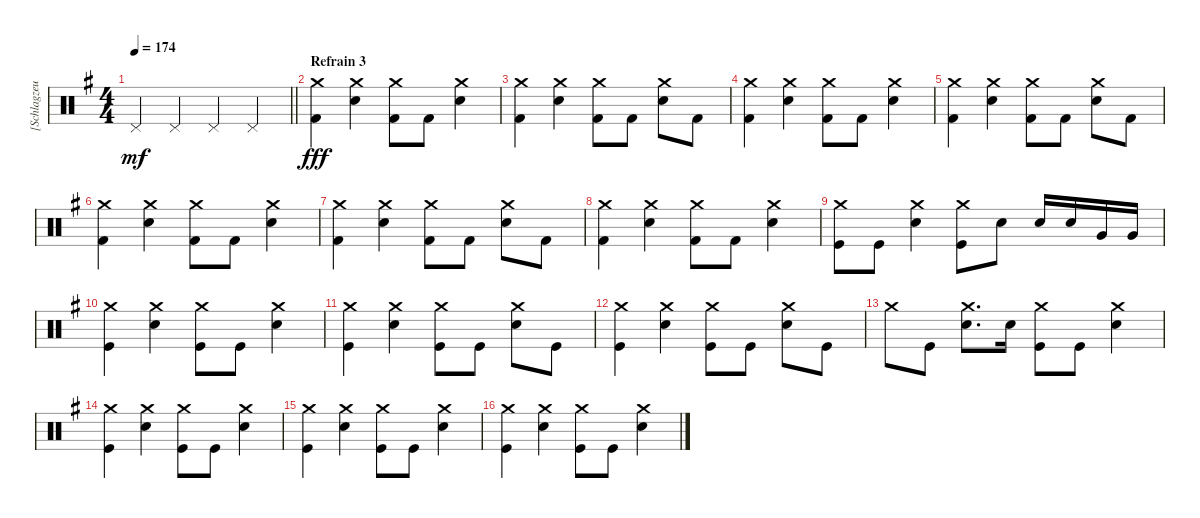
\track ("[Schlagzeug]" "[Schlagzeu") {instrument percussion}
\staff {score}
\articulation defaults
\ts (4 4)
\tempo 174
\clef neutral
\barLineRight lightlight
\ks g "Pedal Hi-Hat (hit)".4{dy mf} "Pedal Hi-Hat (hit)".4 "Pedal Hi-Hat (hit)".4 "Pedal Hi-Hat (hit)".4
|
\section ("" "Refrain 3")
("Crash medium (hit)" "Kick (hit) 2").4{dy fff} ("Crash medium (hit)" "Electric Snare (hit)").4 ("Crash medium (hit)" "Kick (hit) 2").8 "Kick (hit) 2".8 ("Crash medium (hit)" "Electric Snare (hit)").4 |
("Crash medium (hit)" "Kick (hit) 2").4 ("Crash medium (hit)" "Electric Snare (hit)").4 ("Crash medium (hit)" "Kick (hit) 2").8 "Kick (hit) 2".8 ("Crash medium (hit)" "Electric Snare (hit)").8 "Kick (hit) 2".8 |
("Crash medium (hit)" "Kick (hit) 2").4 ("Crash medium (hit)" "Electric Snare (hit)").4 ("Crash medium (hit)" "Kick (hit) 2").8 "Kick (hit) 2".8 ("Crash medium (hit)" "Electric Snare (hit)").4 |
("Crash medium (hit)" "Kick (hit) 2").4 ("Crash medium (hit)" "Electric Snare (hit)").4 ("Crash medium (hit)" "Kick (hit) 2").8 "Kick (hit) 2".8 ("Crash medium (hit)" "Electric Snare (hit)").8 "Kick (hit) 2".8 |
("Crash medium (hit)" "Kick (hit) 2").4 ("Crash medium (hit)" "Electric Snare (hit)").4 ("Crash medium (hit)" "Kick (hit) 2").8 "Kick (hit) 2".8 ("Crash medium (hit)" "Electric Snare (hit)").4 |
("Crash medium (hit)" "Kick (hit) 2").4 ("Crash medium (hit)" "Electric Snare (hit)").4 ("Crash medium (hit)" "Kick (hit) 2").8 "Kick (hit) 2".8 ("Crash medium (hit)" "Electric Snare (hit)").8 "Kick (hit) 2".8 |
("Crash medium (hit)" "Kick (hit) 2").4 ("Crash medium (hit)" "Electric Snare (hit)").4 ("Crash medium (hit)" "Kick (hit) 2").8 "Kick (hit) 2".8 ("Crash medium (hit)" "Electric Snare (hit)").4 |
("Crash medium (hit)" "Kick (hit)").8 "Kick (hit)".8 ("Crash medium (hit)" "Electric Snare (hit)").4 ("Crash medium (hit)" "Kick (hit)").8 "Electric Snare (hit)".8 "Electric Snare (hit)".16 "Electric Snare (hit)".16 "Very Low Tom (hit)".16 "Very Low Tom (hit)".16 |
("Crash medium (hit)" "Kick (hit)").4 ("Crash medium (hit)" "Electric Snare (hit)").4 ("Crash medium (hit)" "Kick (hit)").8 "Kick (hit)".8 ("Crash medium (hit)" "Electric Snare (hit)").4 |
("Crash medium (hit)" "Kick (hit)").4 ("Crash medium (hit)" "Electric Snare (hit)").4 ("Crash medium (hit)" "Kick (hit)").8 "Kick (hit)".8 ("Crash medium (hit)" "Electric Snare (hit)").8 "Kick (hit)".8 |
("Crash medium (hit)" "Kick (hit)").4 ("Crash medium (hit)" "Electric Snare (hit)").4 ("Crash medium (hit)" "Kick (hit)").8 "Kick (hit)".8 ("Crash medium (hit)" "Electric Snare (hit)").8 "Kick (hit)".8 |
"Crash medium (hit)".8 "Kick (hit)".8 ("Crash medium (hit)" "Electric Snare (hit)").8{d} "Electric Snare (hit)".16 ("Crash medium (hit)" "Kick (hit)").8 "Kick (hit)".8 ("Crash medium (hit)" "Electric Snare (hit)").4 |
("Crash medium (hit)" "Kick (hit)").4 ("Crash medium (hit)" "Electric Snare (hit)").4 ("Crash medium (hit)" "Kick (hit)").8 "Kick (hit)".8 ("Crash medium (hit)" "Electric Snare (hit)").4 |
("Crash medium (hit)" "Kick (hit)").4 ("Crash medium (hit)" "Electric Snare (hit)").4 ("Crash medium (hit)" "Kick (hit)").8 "Kick (hit)".8 ("Crash medium (hit)" "Electric Snare (hit)").4 |
("Crash medium (hit)" "Kick (hit)").4 ("Crash medium (hit)" "Electric Snare (hit)").4 ("Crash medium (hit)" "Kick (hit)").8 "Kick (hit)".8 ("Crash medium (hit)" "Electric Snare (hit)").4
